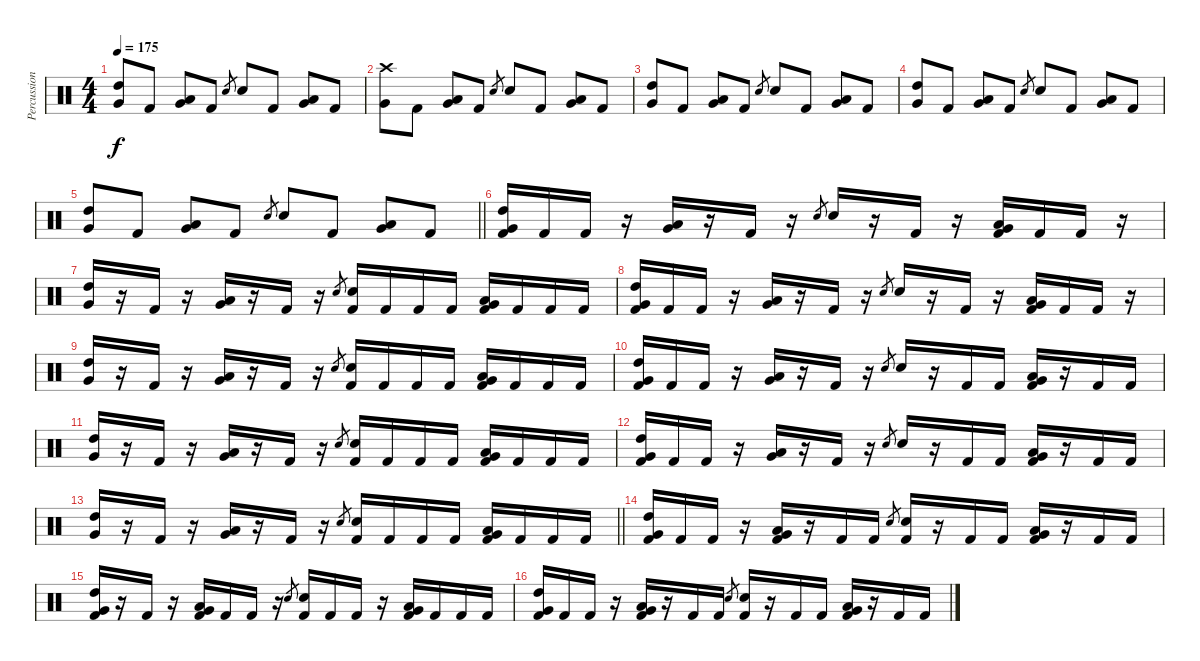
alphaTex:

\track ("Percussion" "Percussion") {instrument percussion}
\staff {score}
\articulation defaults
\ts (4 4)
\tempo 175
\clef neutral
\ks c
("High Tom (hit)" "Very Low Tom (hit)").8{dy f} "Kick (hit) 2".8 ("Low Tom (hit)" "Very Low Tom (hit)").8 "Kick (hit) 2".8 "Snare (hit) 2".8{gr} "Snare (hit) 2".8 "Kick (hit) 2".8 ("Low Tom (hit)" "Very Low Tom (hit)").8 "Kick (hit) 2".8 |
("Crash high (hit)" "Very Low Tom (hit)").8 "Kick (hit) 2".8 ("Low Tom (hit)" "Very Low Tom (hit)").8 "Kick (hit) 2".8 "Snare (hit) 2".8{gr} "Snare (hit) 2".8 "Kick (hit) 2".8 ("Low Tom (hit)" "Very Low Tom (hit)").8 "Kick (hit) 2".8 |
("High Tom (hit)" "Very Low Tom (hit)").8 "Kick (hit) 2".8 ("Low Tom (hit)" "Very Low Tom (hit)").8 "Kick (hit) 2".8 "Snare (hit) 2".8{gr} "Snare (hit) 2".8 "Kick (hit) 2".8 ("Low Tom (hit)" "Very Low Tom (hit)").8 "Kick (hit) 2".8 |
("High Tom (hit)" "Very Low Tom (hit)").8 "Kick (hit) 2".8 ("Low Tom (hit)" "Very Low Tom (hit)").8 "Kick (hit) 2".8 "Snare (hit) 2".8{gr} "Snare (hit) 2".8 "Kick (hit) 2".8 ("Low Tom (hit)" "Very Low Tom (hit)").8 "Kick (hit) 2".8 |
\barLineRight lightlight
("High Tom (hit)" "Very Low Tom (hit)").8 "Kick (hit) 2".8 ("Low Tom (hit)" "Very Low Tom (hit)").8 "Kick (hit) 2".8 "Snare (hit) 2".8{gr} "Snare (hit) 2".8 "Kick (hit) 2".8 ("Low Tom (hit)" "Very Low Tom (hit)").8 "Kick (hit) 2".8 |
\section ("" "")
("High Tom (hit)" "Very Low Tom (hit)" "Kick (hit) 2").16 "Kick (hit) 2".16 "Kick (hit) 2".16 r.16 ("Low Tom (hit)" "Very Low Tom (hit)").16 r.16 "Kick (hit) 2".16 r.16 "Snare (hit) 2".8{gr} "Snare (hit) 2".16 r.16 "Kick (hit) 2".16 r.16 ("Low Tom (hit)" "Very Low Tom (hit)" "Kick (hit) 2").16 "Kick (hit) 2".16 "Kick (hit) 2".16 r.16 |
("High Tom (hit)" "Very Low Tom (hit)").16 r.16 "Kick (hit) 2".16 r.16 ("Low Tom (hit)" "Very Low Tom (hit)").16 r.16 "Kick (hit) 2".16 r.16 "Snare (hit) 2".8{gr} ("Snare (hit) 2" "Kick (hit) 2").16 "Kick (hit) 2".16 "Kick (hit) 2".16 "Kick (hit) 2".16 ("Low Tom (hit)" "Very Low Tom (hit)" "Kick (hit) 2").16 "Kick (hit) 2".16 "Kick (hit) 2".16 "Kick (hit) 2".16 |
("High Tom (hit)" "Very Low Tom (hit)" "Kick (hit) 2").16 "Kick (hit) 2".16 "Kick (hit) 2".16 r.16 ("Low Tom (hit)" "Very Low Tom (hit)").16 r.16 "Kick (hit) 2".16 r.16 "Snare (hit) 2".8{gr} "Snare (hit) 2".16 r.16 "Kick (hit) 2".16 r.16 ("Low Tom (hit)" "Very Low Tom (hit)" "Kick (hit) 2").16 "Kick (hit) 2".16 "Kick (hit) 2".16 r.16 |
("High Tom (hit)" "Very Low Tom (hit)").16 r.16 "Kick (hit) 2".16 r.16 ("Low Tom (hit)" "Very Low Tom (hit)").16 r.16 "Kick (hit) 2".16 r.16 "Snare (hit) 2".8{gr} ("Snare (hit) 2" "Kick (hit) 2").16 "Kick (hit) 2".16 "Kick (hit) 2".16 "Kick (hit) 2".16 ("Low Tom (hit)" "Very Low Tom (hit)" "Kick (hit) 2").16 "Kick (hit) 2".16 "Kick (hit) 2".16 "Kick (hit) 2".16 |
("High Tom (hit)" "Very Low Tom (hit)" "Kick (hit) 2").16 "Kick (hit) 2".16 "Kick (hit) 2".16 r.16 ("Low Tom (hit)" "Very Low Tom (hit)").16 r.16 "Kick (hit) 2".16 r.16 "Snare (hit) 2".8{gr} "Snare (hit) 2".16 r.16 "Kick (hit) 2".16 "Kick (hit) 2".16 ("Low Tom (hit)" "Very Low Tom (hit)" "Kick (hit) 2").16 r.16 "Kick (hit) 2".16 "Kick (hit) 2".16 |
("High Tom (hit)" "Very Low Tom (hit)").16 r.16 "Kick (hit) 2".16 r.16 ("Low Tom (hit)" "Very Low Tom (hit)").16 r.16 "Kick (hit) 2".16 r.16 "Snare (hit) 2".8{gr} ("Snare (hit) 2" "Kick (hit) 2").16 "Kick (hit) 2".16 "Kick (hit) 2".16 "Kick (hit) 2".16 ("Low Tom (hit)" "Very Low Tom (hit)" "Kick (hit) 2").16 "Kick (hit) 2".16 "Kick (hit) 2".16 "Kick (hit) 2".16 |
("High Tom (hit)" "Very Low Tom (hit)" "Kick (hit) 2").16 "Kick (hit) 2".16 "Kick (hit) 2".16 r.16 ("Low Tom (hit)" "Very Low Tom (hit)").16 r.16 "Kick (hit) 2".16 r.16 "Snare (hit) 2".8{gr} "Snare (hit) 2".16 r.16 "Kick (hit) 2".16 "Kick (hit) 2".16 ("Low Tom (hit)" "Very Low Tom (hit)" "Kick (hit) 2").16 r.16 "Kick (hit) 2".16 "Kick (hit) 2".16 |
\barLineRight lightlight
("High Tom (hit)" "Very Low Tom (hit)").16 r.16 "Kick (hit) 2".16 r.16 ("Low Tom (hit)" "Very Low Tom (hit)").16 r.16 "Kick (hit) 2".16 r.16 "Snare (hit) 2".8{gr} ("Snare (hit) 2" "Kick (hit) 2").16 "Kick (hit) 2".16 "Kick (hit) 2".16 "Kick (hit) 2".16 ("Low Tom (hit)" "Very Low Tom (hit)" "Kick (hit) 2").16 "Kick (hit) 2".16 "Kick (hit) 2".16 "Kick (hit) 2".16 |
\section ("" "")
("High Tom (hit)" "Very Low Tom (hit)" "Kick (hit) 2").16 "Kick (hit) 2".16 "Kick (hit) 2".16 r.16 ("Low Tom (hit)" "Very Low Tom (hit)" "Kick (hit) 2").16 r.16 "Kick (hit) 2".16 "Kick (hit) 2".16 "Snare (hit) 2".8{gr} ("Snare (hit) 2" "Kick (hit) 2").16 r.16 "Kick (hit) 2".16 "Kick (hit) 2".16 ("Low Tom (hit)" "Very Low Tom (hit)" "Kick (hit) 2").16 r.16 "Kick (hit) 2".16 "Kick (hit) 2".16 |
("High Tom (hit)" "Very Low Tom (hit)" "Kick (hit) 2").16 r.16 "Kick (hit) 2".16 r.16 ("Low Tom (hit)" "Very Low Tom (hit)" "Kick (hit) 2").16 "Kick (hit) 2".16 "Kick (hit) 2".16 r.16 "Snare (hit) 2".8{gr} ("Snare (hit) 2" "Kick (hit) 2").16 "Kick (hit) 2".16 "Kick (hit) 2".16 r.16 ("Low Tom (hit)" "Very Low Tom (hit)" "Kick (hit) 2").16 "Kick (hit) 2".16 "Kick (hit) 2".16 "Kick (hit) 2".16 |
("High Tom (hit)" "Very Low Tom (hit)" "Kick (hit) 2").16 "Kick (hit) 2".16 "Kick (hit) 2".16 r.16 ("Low Tom (hit)" "Very Low Tom (hit)" "Kick (hit) 2").16 r.16 "Kick (hit) 2".16 "Kick (hit) 2".16 "Snare (hit) 2".8{gr} ("Snare (hit) 2" "Kick (hit) 2").16 r.16 "Kick (hit) 2".16 "Kick (hit) 2".16 ("Low Tom (hit)" "Very Low Tom (hit)" "Kick (hit) 2").16 r.16 "Kick (hit) 2".16 "Kick (hit) 2".16
